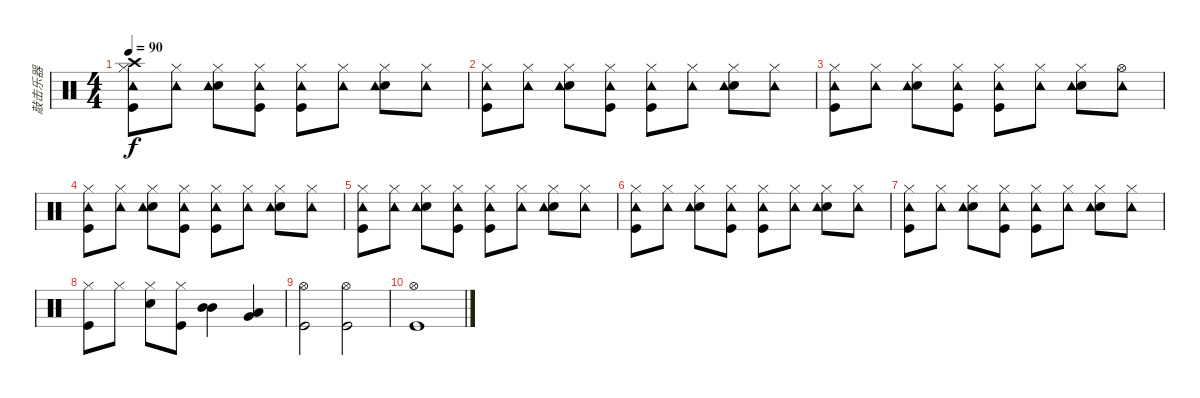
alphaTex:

\track ("敲击乐器" "敲击乐器") {instrument percussion}
\staff {score}
\articulation defaults
\ts (4 4)
\tempo 90
\clef neutral
\ks c
("Hi-Hat (closed)" "Crash high (hit)" "Kick (hit)" "Tambourine (hit)").8{dy f} ("Hi-Hat (closed)" "Tambourine (hit)").8 ("Hi-Hat (closed)" "Snare (hit) 2" "Tambourine (hit)").8 ("Hi-Hat (closed)" "Kick (hit)" "Tambourine (hit)").8 ("Hi-Hat (closed)" "Kick (hit)" "Tambourine (hit)").8 ("Hi-Hat (closed)" "Tambourine (hit)").8 ("Hi-Hat (closed)" "Snare (hit) 2" "Tambourine (hit)").8 ("Hi-Hat (closed)" "Tambourine (hit)").8 |
("Hi-Hat (closed)" "Kick (hit)" "Tambourine (hit)").8 ("Hi-Hat (closed)" "Tambourine (hit)").8 ("Hi-Hat (closed)" "Snare (hit) 2" "Tambourine (hit)").8 ("Hi-Hat (closed)" "Kick (hit)" "Tambourine (hit)").8 ("Hi-Hat (closed)" "Kick (hit)" "Tambourine (hit)").8 ("Hi-Hat (closed)" "Tambourine (hit)").8 ("Hi-Hat (closed)" "Snare (hit) 2" "Tambourine (hit)").8 ("Hi-Hat (closed)" "Tambourine (hit)").8 |
("Hi-Hat (closed)" "Kick (hit)" "Tambourine (hit)").8 ("Hi-Hat (closed)" "Tambourine (hit)").8 ("Hi-Hat (closed)" "Snare (hit) 2" "Tambourine (hit)").8 ("Hi-Hat (closed)" "Kick (hit)" "Tambourine (hit)").8 ("Hi-Hat (closed)" "Kick (hit)" "Tambourine (hit)").8 ("Hi-Hat (closed)" "Tambourine (hit)").8 ("Hi-Hat (closed)" "Snare (hit) 2" "Tambourine (hit)").8 ("Hi-Hat (open)" "Tambourine (hit)").8 |
("Hi-Hat (closed)" "Kick (hit)" "Tambourine (hit)").8 ("Hi-Hat (closed)" "Tambourine (hit)").8 ("Hi-Hat (closed)" "Snare (hit) 2" "Tambourine (hit)").8 ("Hi-Hat (closed)" "Kick (hit)" "Tambourine (hit)").8 ("Hi-Hat (closed)" "Kick (hit)" "Tambourine (hit)").8 ("Hi-Hat (closed)" "Tambourine (hit)").8 ("Hi-Hat (closed)" "Snare (hit) 2" "Tambourine (hit)").8 ("Hi-Hat (closed)" "Tambourine (hit)").8 |
("Hi-Hat (closed)" "Kick (hit)" "Tambourine (hit)").8 ("Hi-Hat (closed)" "Tambourine (hit)").8 ("Hi-Hat (closed)" "Snare (hit) 2" "Tambourine (hit)").8 ("Hi-Hat (closed)" "Kick (hit)" "Tambourine (hit)").8 ("Hi-Hat (closed)" "Kick (hit)" "Tambourine (hit)").8 ("Hi-Hat (closed)" "Tambourine (hit)").8 ("Hi-Hat (closed)" "Snare (hit) 2" "Tambourine (hit)").8 ("Hi-Hat (closed)" "Tambourine (hit)").8 |
("Hi-Hat (closed)" "Kick (hit)" "Tambourine (hit)").8 ("Hi-Hat (closed)" "Tambourine (hit)").8 ("Hi-Hat (closed)" "Snare (hit) 2" "Tambourine (hit)").8 ("Hi-Hat (closed)" "Kick (hit)" "Tambourine (hit)").8 ("Hi-Hat (closed)" "Kick (hit)" "Tambourine (hit)").8 ("Hi-Hat (closed)" "Tambourine (hit)").8 ("Hi-Hat (closed)" "Snare (hit) 2" "Tambourine (hit)").8 ("Hi-Hat (closed)" "Tambourine (hit)").8 |
("Hi-Hat (closed)" "Kick (hit)" "Tambourine (hit)").8 ("Hi-Hat (closed)" "Tambourine (hit)").8 ("Hi-Hat (closed)" "Snare (hit) 2" "Tambourine (hit)").8 ("Hi-Hat (closed)" "Kick (hit)" "Tambourine (hit)").8 ("Hi-Hat (closed)" "Kick (hit)" "Tambourine (hit)").8 ("Hi-Hat (closed)" "Tambourine (hit)").8 ("Hi-Hat (closed)" "Snare (hit) 2" "Tambourine (hit)").8 ("Hi-Hat (closed)" "Tambourine (hit)").8 |
("Hi-Hat (closed)" "Kick (hit)").8 "Hi-Hat (closed)".8 ("Hi-Hat (closed)" "Snare (hit) 2").8 ("Hi-Hat (closed)" "Kick (hit)").8 ("Mid Tom (hit)" "Mid Tom (hit)").4 ("Very Low Tom (hit)" "Low Tom (hit)").4 |
("Hi-Hat (open)" "Kick (hit)").2 ("Hi-Hat (open)" "Kick (hit)").2 |
("Hi-Hat (open)" "Kick (hit)").1
